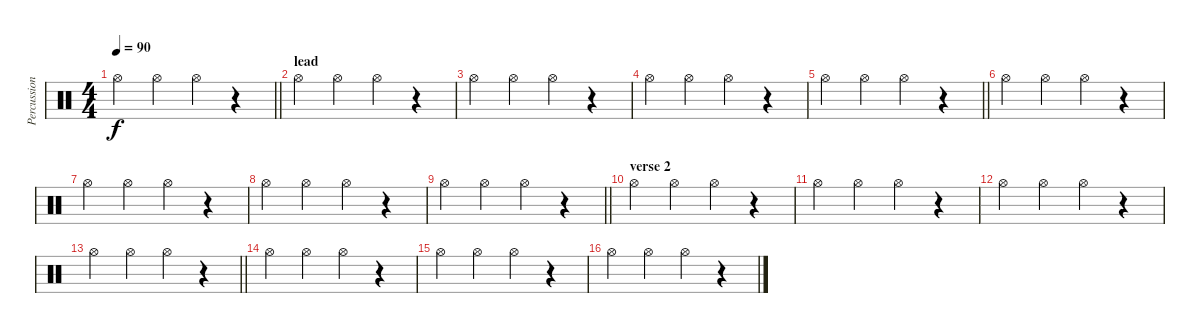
\track ("Percussion" "Percussion") {instrument percussion}
\staff {score}
\articulation defaults
\ts (4 4)
\tempo 90
\clef neutral
\barLineRight lightlight
\ks c "Hi-Hat (open)".4{dy f} "Hi-Hat (open)".4 "Hi-Hat (open)".4
r.4 |
\section ("" "lead")
"Hi-Hat (open)".4 "Hi-Hat (open)".4 "Hi-Hat (open)".4 r.4 |
"Hi-Hat (open)".4 "Hi-Hat (open)".4 "Hi-Hat (open)".4 r.4 |
"Hi-Hat (open)".4 "Hi-Hat (open)".4 "Hi-Hat (open)".4 r.4 |
\barLineRight lightlight "Hi-Hat (open)".4 "Hi-Hat (open)".4 "Hi-Hat (open)".4
r.4 |
"Hi-Hat (open)".4 "Hi-Hat (open)".4 "Hi-Hat (open)".4 r.4 |
"Hi-Hat (open)".4 "Hi-Hat (open)".4 "Hi-Hat (open)".4 r.4 |
"Hi-Hat (open)".4 "Hi-Hat (open)".4 "Hi-Hat (open)".4 r.4 |
\barLineRight lightlight "Hi-Hat (open)".4 "Hi-Hat (open)".4 "Hi-Hat (open)".4
r.4 |
\section ("" "verse 2")
"Hi-Hat (open)".4 "Hi-Hat (open)".4 "Hi-Hat (open)".4 r.4 |
"Hi-Hat (open)".4 "Hi-Hat (open)".4 "Hi-Hat (open)".4 r.4 |
"Hi-Hat (open)".4 "Hi-Hat (open)".4 "Hi-Hat (open)".4 r.4 |
\barLineRight lightlight "Hi-Hat (open)".4 "Hi-Hat (open)".4 "Hi-Hat (open)".4
r.4 |
"Hi-Hat (open)".4 "Hi-Hat (open)".4 "Hi-Hat (open)".4 r.4 |
"Hi-Hat (open)".4 "Hi-Hat (open)".4 "Hi-Hat (open)".4 r.4 |
"Hi-Hat (open)".4 "Hi-Hat (open)".4 "Hi-Hat (open)".4 r.4
